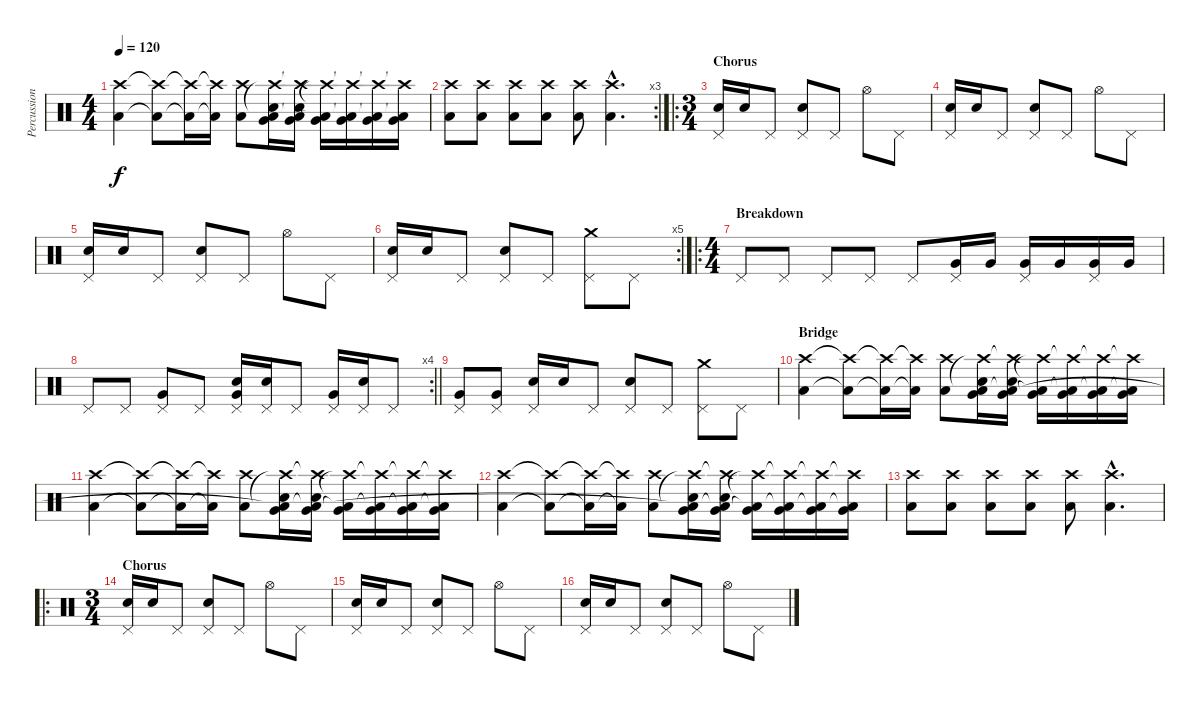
\track ("Percussion" "Percussion") {instrument percussion}
\staff {score}
\articulation defaults
\ts (4 4)
\tempo 120
\clef neutral
\ks c
("Crash high (hit)" "Low Floor Tom (hit)").4{dy f} ("Crash high (hit)"{t} "Low Floor Tom (hit)"{t}).8 ("Crash high (hit)"{t} "Low Floor Tom (hit)"{t}).16 ("Crash high (hit)"{t} "Low Floor Tom (hit)"{t}).16 ("Crash high (hit)" "Low Floor Tom (hit)").8 ("Electric Snare (hit)" "Crash high (hit)"{t} "Very Low Tom (hit)" "Low Floor Tom (hit)"{t}).16 ("Electric Snare (hit)" "Crash high (hit)"{t} "Very Low Tom (hit)" "Low Floor Tom (hit)"{t}).16 ("Crash high (hit)"{t} "Very Low Tom (hit)" "Low Floor Tom (hit)"{t}).16 ("Crash high (hit)"{t} "Very Low Tom (hit)" "Low Floor Tom (hit)"{t}).16 ("Crash high (hit)"{t} "Very Low Tom (hit)" "Low Floor Tom (hit)"{t}).16 ("Crash high (hit)"{t} "Very Low Tom (hit)" "Low Floor Tom (hit)"{t}).16 |
\rc 3
("Crash high (hit)" "Low Floor Tom (hit)").8 ("Crash high (hit)" "Low Floor Tom (hit)").8 ("Crash high (hit)" "Low Floor Tom (hit)").8 ("Crash high (hit)" "Low Floor Tom (hit)").8 ("Crash high (hit)" "Low Floor Tom (hit)").8 ("Crash high (hit)"{hac} "Low Floor Tom (hit)"{hac}).4{d} |
\ro
\ts (3 4)
\section ("" "Chorus")
("Electric Snare (hit)" "Pedal Hi-Hat (hit)").16 "Electric Snare (hit)".16 "Pedal Hi-Hat (hit)".8 ("Electric Snare (hit)" "Pedal Hi-Hat (hit)").8 "Pedal Hi-Hat (hit)".8 "Hi-Hat (open)".8 "Pedal Hi-Hat (hit)".8 |
("Electric Snare (hit)" "Pedal Hi-Hat (hit)").16 "Electric Snare (hit)".16 "Pedal Hi-Hat (hit)".8 ("Electric Snare (hit)" "Pedal Hi-Hat (hit)").8 "Pedal Hi-Hat (hit)".8 "Hi-Hat (open)".8 "Pedal Hi-Hat (hit)".8 |
("Electric Snare (hit)" "Pedal Hi-Hat (hit)").16 "Electric Snare (hit)".16 "Pedal Hi-Hat (hit)".8 ("Electric Snare (hit)" "Pedal Hi-Hat (hit)").8 "Pedal Hi-Hat (hit)".8 "Hi-Hat (open)".8 "Pedal Hi-Hat (hit)".8 |
\rc 5
("Electric Snare (hit)" "Pedal Hi-Hat (hit)").16 "Electric Snare (hit)".16 "Pedal Hi-Hat (hit)".8 ("Electric Snare (hit)" "Pedal Hi-Hat (hit)").8 "Pedal Hi-Hat (hit)".8 ("Crash medium (hit)" "Pedal Hi-Hat (hit)").8 "Pedal Hi-Hat (hit)".8 |
\ro
\ts (4 4)
\section ("" "Breakdown")
"Pedal Hi-Hat (hit)".8 "Pedal Hi-Hat (hit)".8 "Pedal Hi-Hat (hit)".8 "Pedal Hi-Hat (hit)".8 "Pedal Hi-Hat (hit)".8 ("Very Low Tom (hit)" "Pedal Hi-Hat (hit)").16 "Very Low Tom (hit)".16 ("Very Low Tom (hit)" "Pedal Hi-Hat (hit)").16 "Very Low Tom (hit)".16 ("Very Low Tom (hit)" "Pedal Hi-Hat (hit)").16 "Very Low Tom (hit)".16 |
\rc 4
\barLineRight lightlight "Pedal Hi-Hat (hit)".8 "Pedal Hi-Hat (hit)".8
("Very Low Tom (hit)" "Pedal Hi-Hat (hit)").8 "Pedal Hi-Hat (hit)".8 ("Electric Snare (hit)" "Very Low Tom (hit)" "Pedal Hi-Hat (hit)").16 ("Electric Snare (hit)" "Pedal Hi-Hat (hit)").16 "Pedal Hi-Hat (hit)".8 ("Very Low Tom (hit)" "Pedal Hi-Hat (hit)").16 ("Electric Snare (hit)" "Pedal Hi-Hat (hit)").16 "Pedal Hi-Hat (hit)".8 |
("Very Low Tom (hit)" "Pedal Hi-Hat (hit)").8 ("Very Low Tom (hit)" "Pedal Hi-Hat (hit)").8 ("Electric Snare (hit)" "Pedal Hi-Hat (hit)").16 "Electric Snare (hit)".16 "Pedal Hi-Hat (hit)".8 ("Electric Snare (hit)" "Pedal Hi-Hat (hit)").8 "Pedal Hi-Hat (hit)".8 ("Crash medium (hit)" "Pedal Hi-Hat (hit)").8 "Pedal Hi-Hat (hit)".8 |
\section ("" "Bridge")
("Crash high (hit)" "Low Floor Tom (hit)").4 ("Crash high (hit)"{t} "Low Floor Tom (hit)"{t}).8 ("Crash high (hit)"{t} "Low Floor Tom (hit)"{t}).16 ("Crash high (hit)"{t} "Low Floor Tom (hit)"{t}).16 ("Crash high (hit)" "Low Floor Tom (hit)").8 ("Electric Snare (hit)" "Crash high (hit)"{t} "Very Low Tom (hit)" "Low Floor Tom (hit)").16 ("Electric Snare (hit)" "Crash high (hit)"{t} "Very Low Tom (hit)" "Low Floor Tom (hit)"{t}).16 ("Crash high (hit)"{t} "Very Low Tom (hit)" "Low Floor Tom (hit)"{t}).16 ("Crash high (hit)"{t} "Very Low Tom (hit)" "Low Floor Tom (hit)"{t}).16 ("Crash high (hit)"{t} "Very Low Tom (hit)" "Low Floor Tom (hit)"{t}).16 ("Crash high (hit)"{t} "Very Low Tom (hit)" "Low Floor Tom (hit)"{t}).16 |
("Crash high (hit)" "Low Floor Tom (hit)").4 ("Crash high (hit)"{t} "Low Floor Tom (hit)"{t}).8 ("Crash high (hit)"{t} "Low Floor Tom (hit)"{t}).16 ("Crash high (hit)"{t} "Low Floor Tom (hit)"{t}).16 ("Crash high (hit)" "Low Floor Tom (hit)").8 ("Electric Snare (hit)" "Crash high (hit)"{t} "Very Low Tom (hit)" "Low Floor Tom (hit)"{t}).16 ("Electric Snare (hit)" "Crash high (hit)"{t} "Very Low Tom (hit)" "Low Floor Tom (hit)"{t}).16 ("Crash high (hit)"{t} "Very Low Tom (hit)" "Low Floor Tom (hit)"{t}).16 ("Crash high (hit)"{t} "Very Low Tom (hit)" "Low Floor Tom (hit)"{t}).16 ("Crash high (hit)"{t} "Very Low Tom (hit)" "Low Floor Tom (hit)"{t}).16 ("Crash high (hit)"{t} "Very Low Tom (hit)" "Low Floor Tom (hit)"{t}).16 |
("Crash high (hit)" "Low Floor Tom (hit)").4 ("Crash high (hit)"{t} "Low Floor Tom (hit)"{t}).8 ("Crash high (hit)"{t} "Low Floor Tom (hit)"{t}).16 ("Crash high (hit)"{t} "Low Floor Tom (hit)"{t}).16 ("Crash high (hit)" "Low Floor Tom (hit)").8 ("Electric Snare (hit)" "Crash high (hit)"{t} "Very Low Tom (hit)" "Low Floor Tom (hit)"{t}).16 ("Electric Snare (hit)" "Crash high (hit)"{t} "Very Low Tom (hit)" "Low Floor Tom (hit)"{t}).16 ("Crash high (hit)"{t} "Very Low Tom (hit)" "Low Floor Tom (hit)"{t}).16 ("Crash high (hit)"{t} "Very Low Tom (hit)" "Low Floor Tom (hit)"{t}).16 ("Crash high (hit)"{t} "Very Low Tom (hit)" "Low Floor Tom (hit)"{t}).16 ("Crash high (hit)"{t} "Very Low Tom (hit)" "Low Floor Tom (hit)"{t}).16 |
("Crash high (hit)" "Low Floor Tom (hit)").8 ("Crash high (hit)" "Low Floor Tom (hit)").8 ("Crash high (hit)" "Low Floor Tom (hit)").8 ("Crash high (hit)" "Low Floor Tom (hit)").8 ("Crash high (hit)" "Low Floor Tom (hit)").8 ("Crash high (hit)"{hac} "Low Floor Tom (hit)"{hac}).4{d} |
\ro
\ts (3 4)
\section ("" "Chorus")
("Electric Snare (hit)" "Pedal Hi-Hat (hit)").16 "Electric Snare (hit)".16 "Pedal Hi-Hat (hit)".8 ("Electric Snare (hit)" "Pedal Hi-Hat (hit)").8 "Pedal Hi-Hat (hit)".8 "Hi-Hat (open)".8 "Pedal Hi-Hat (hit)".8 |
("Electric Snare (hit)" "Pedal Hi-Hat (hit)").16 "Electric Snare (hit)".16 "Pedal Hi-Hat (hit)".8 ("Electric Snare (hit)" "Pedal Hi-Hat (hit)").8 "Pedal Hi-Hat (hit)".8 "Hi-Hat (open)".8 "Pedal Hi-Hat (hit)".8 |
("Electric Snare (hit)" "Pedal Hi-Hat (hit)").16 "Electric Snare (hit)".16 "Pedal Hi-Hat (hit)".8 ("Electric Snare (hit)" "Pedal Hi-Hat (hit)").8 "Pedal Hi-Hat (hit)".8 "Hi-Hat (open)".8 "Pedal Hi-Hat (hit)".8
